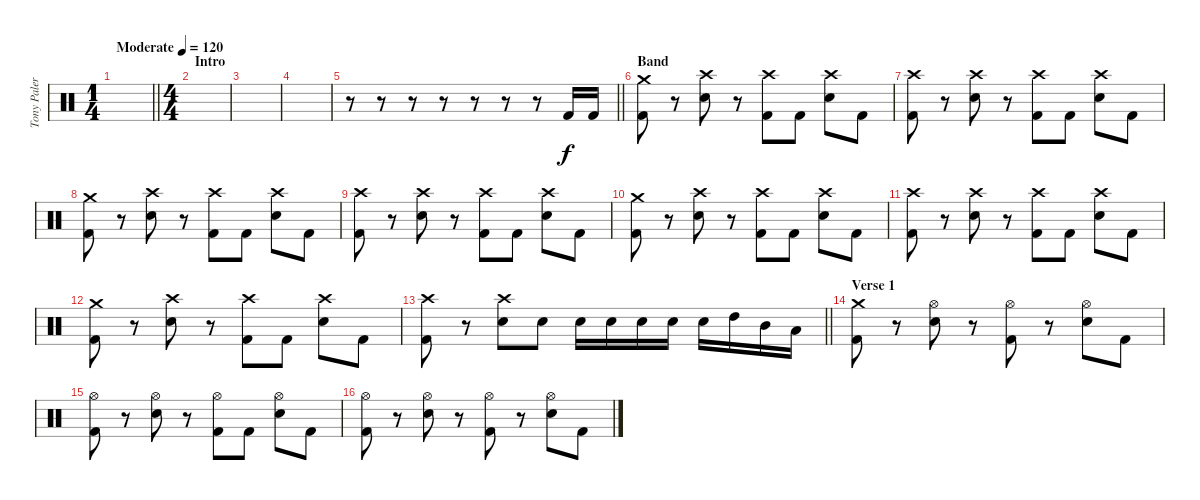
\track ("Tony Palermo " "Tony Paler") {instrument percussion}
\staff {score}
\articulation defaults
\ts (1 4)
\tempo (120 "Moderate")
\clef neutral
\barLineRight lightlight
\ks c
|
\ts (4 4)
\section ("" "Intro")
|
|
|
\barLineRight lightlight
r.8 r.8 r.8 r.8 r.8 r.8 r.8 "Kick (hit) 2".16 "Kick (hit) 2".16 |
\section ("" "Band")
("Crash medium (hit)" "Kick (hit) 2").8 r.8 ("Crash high (hit)" "Snare (hit) 2").8 r.8 ("Crash high (hit)" "Kick (hit) 2").8 "Kick (hit) 2".8 ("Crash high (hit)" "Snare (hit) 2").8 "Kick (hit) 2".8 |
("Crash high (hit)" "Kick (hit) 2").8 r.8 ("Crash high (hit)" "Snare (hit) 2").8 r.8 ("Crash high (hit)" "Kick (hit) 2").8 "Kick (hit) 2".8 ("Crash high (hit)" "Snare (hit) 2").8 "Kick (hit) 2".8 |
("Crash medium (hit)" "Kick (hit) 2").8 r.8 ("Crash high (hit)" "Snare (hit) 2").8 r.8 ("Crash high (hit)" "Kick (hit) 2").8 "Kick (hit) 2".8 ("Crash high (hit)" "Snare (hit) 2").8 "Kick (hit) 2".8 |
("Crash high (hit)" "Kick (hit) 2").8 r.8 ("Crash high (hit)" "Snare (hit) 2").8 r.8 ("Crash high (hit)" "Kick (hit) 2").8 "Kick (hit) 2".8 ("Crash high (hit)" "Snare (hit) 2").8 "Kick (hit) 2".8 |
("Crash medium (hit)" "Kick (hit) 2").8 r.8 ("Crash high (hit)" "Snare (hit) 2").8 r.8 ("Crash high (hit)" "Kick (hit) 2").8 "Kick (hit) 2".8 ("Crash high (hit)" "Snare (hit) 2").8 "Kick (hit) 2".8 |
("Crash high (hit)" "Kick (hit) 2").8 r.8 ("Crash high (hit)" "Snare (hit) 2").8 r.8 ("Crash high (hit)" "Kick (hit) 2").8 "Kick (hit) 2".8 ("Crash high (hit)" "Snare (hit) 2").8 "Kick (hit) 2".8 |
("Crash medium (hit)" "Kick (hit) 2").8 r.8 ("Crash high (hit)" "Snare (hit) 2").8 r.8 ("Crash high (hit)" "Kick (hit) 2").8 "Kick (hit) 2".8 ("Crash high (hit)" "Snare (hit) 2").8 "Kick (hit) 2".8 |
\barLineRight lightlight
("Crash high (hit)" "Kick (hit) 2").8 r.8 ("Crash high (hit)" "Snare (hit) 2").8 "Snare (hit) 2".8 "Snare (hit) 2".16 "Snare (hit) 2".16 "Snare (hit) 2".16 "Snare (hit) 2".16 "Snare (hit) 2".16 "High Tom (hit)".16 "Mid Tom (hit)".16 "Low Tom (hit)".16 |
\section ("" "Verse 1")
("Crash medium (hit)" "Kick (hit) 2").8 r.8 ("Hi-Hat (open)" "Snare (hit) 2").8 r.8 ("Hi-Hat (open)" "Kick (hit) 2").8 r.8 ("Hi-Hat (open)" "Snare (hit) 2").8 "Kick (hit) 2".8 |
("Hi-Hat (open)" "Kick (hit) 2").8 r.8 ("Hi-Hat (open)" "Snare (hit) 2").8 r.8 ("Hi-Hat (open)" "Kick (hit) 2").8 "Kick (hit) 2".8 ("Hi-Hat (open)" "Snare (hit) 2").8 "Kick (hit) 2".8 |
("Hi-Hat (open)" "Kick (hit) 2").8 r.8 ("Hi-Hat (open)" "Snare (hit) 2").8 r.8 ("Hi-Hat (open)" "Kick (hit) 2").8 r.8 ("Hi-Hat (open)" "Snare (hit) 2").8 "Kick (hit) 2".8
